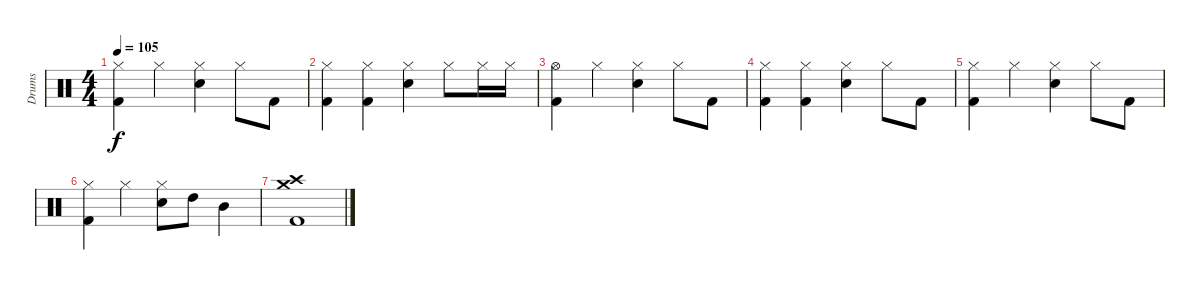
\track ("Drums" "Drums") {instrument percussion}
\staff {score}
\articulation defaults
\ts (4 4)
\tempo 105
\clef neutral
\ks c
("Hi-Hat (closed)" "Kick (hit) 2").4{dy f} "Hi-Hat (closed)".4 ("Hi-Hat (closed)" "Snare (hit) 2").4 "Hi-Hat (closed)".8 "Kick (hit) 2".8 |
("Hi-Hat (closed)" "Kick (hit) 2").4 ("Hi-Hat (closed)" "Kick (hit) 2").4 ("Hi-Hat (closed)" "Snare (hit) 2").4 "Hi-Hat (closed)".8 "Hi-Hat (closed)".16 "Hi-Hat (closed)".16 |
("Hi-Hat (open)" "Kick (hit) 2").4 "Hi-Hat (closed)".4 ("Hi-Hat (closed)" "Snare (hit) 2").4 "Hi-Hat (closed)".8 "Kick (hit) 2".8 |
("Hi-Hat (closed)" "Kick (hit) 2").4 ("Hi-Hat (closed)" "Kick (hit) 2").4 ("Hi-Hat (closed)" "Snare (hit) 2").4 "Hi-Hat (closed)".8 "Kick (hit) 2".8 |
("Hi-Hat (closed)" "Kick (hit) 2").4 "Hi-Hat (closed)".4 ("Hi-Hat (closed)" "Snare (hit) 2").4 "Hi-Hat (closed)".8 "Kick (hit) 2".8 |
("Hi-Hat (closed)" "Kick (hit) 2").4 "Hi-Hat (closed)".4 ("Hi-Hat (closed)" "Snare (hit) 2").8 "High Tom (hit)".8 "Mid Tom (hit)".4 |
("Crash medium (hit)" "Crash high (hit)" "Kick (hit) 2").1
